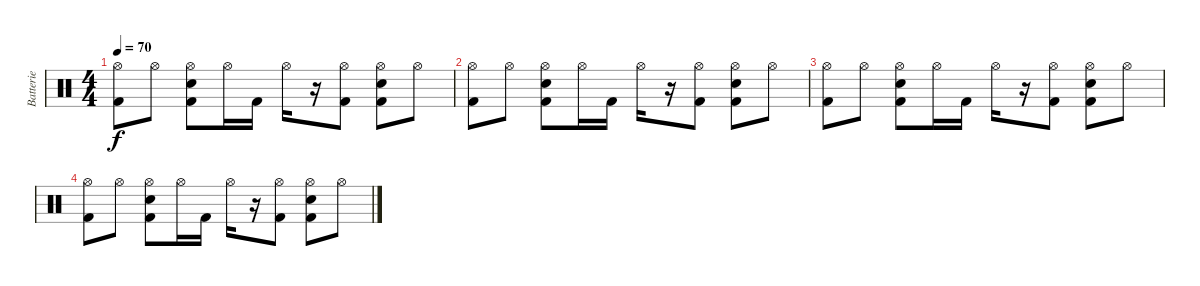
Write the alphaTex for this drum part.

\track ("Batterie" "Batterie") {instrument percussion}
\staff {score}
\articulation defaults
\ts (4 4)
\tempo 70
\clef neutral
\ks c
("Hi-Hat (open)" "Kick (hit) 2").8{dy f} "Hi-Hat (open)".8 ("Hi-Hat (open)" "Electric Snare (hit)" "Kick (hit) 2").8 "Hi-Hat (open)".16 "Kick (hit) 2".16 "Hi-Hat (open)".16 r.16 ("Hi-Hat (open)" "Kick (hit) 2").8 ("Hi-Hat (open)" "Electric Snare (hit)" "Kick (hit) 2").8 "Hi-Hat (open)".8 |
("Hi-Hat (open)" "Kick (hit) 2").8 "Hi-Hat (open)".8 ("Hi-Hat (open)" "Electric Snare (hit)" "Kick (hit) 2").8 "Hi-Hat (open)".16 "Kick (hit) 2".16 "Hi-Hat (open)".16 r.16 ("Hi-Hat (open)" "Kick (hit) 2").8 ("Hi-Hat (open)" "Electric Snare (hit)" "Kick (hit) 2").8 "Hi-Hat (open)".8 |
("Hi-Hat (open)" "Kick (hit) 2").8 "Hi-Hat (open)".8 ("Hi-Hat (open)" "Electric Snare (hit)" "Kick (hit) 2").8 "Hi-Hat (open)".16 "Kick (hit) 2".16 "Hi-Hat (open)".16 r.16 ("Hi-Hat (open)" "Kick (hit) 2").8 ("Hi-Hat (open)" "Electric Snare (hit)" "Kick (hit) 2").8 "Hi-Hat (open)".8 |
("Hi-Hat (open)" "Kick (hit) 2").8 "Hi-Hat (open)".8 ("Hi-Hat (open)" "Electric Snare (hit)" "Kick (hit) 2").8 "Hi-Hat (open)".16 "Kick (hit) 2".16 "Hi-Hat (open)".16 r.16 ("Hi-Hat (open)" "Kick (hit) 2").8 ("Hi-Hat (open)" "Electric Snare (hit)" "Kick (hit) 2").8 "Hi-Hat (open)".8
